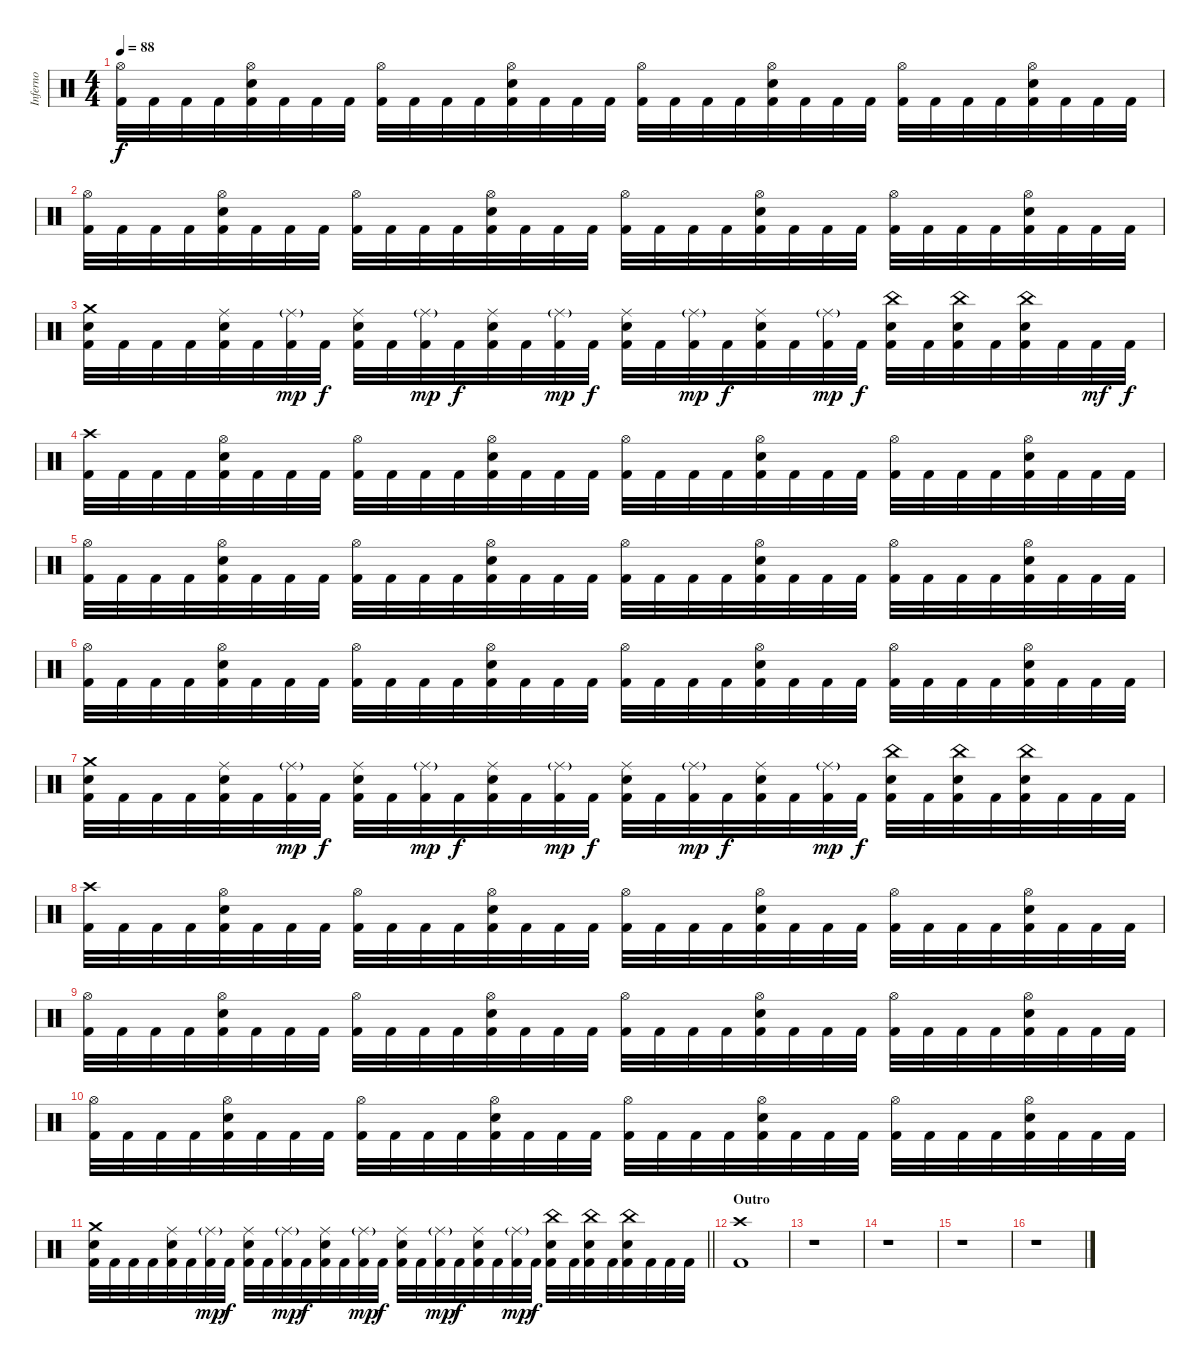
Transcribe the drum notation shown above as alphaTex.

\track ("Inferno" "Inferno") {instrument percussion}
\staff {score}
\articulation defaults
\ts (4 4)
\tempo 88
\clef neutral
\ks c
("Hi-Hat (open)" "Kick (hit) 2").32{dy f} "Kick (hit) 2".32 "Kick (hit) 2".32 "Kick (hit) 2".32 ("Hi-Hat (open)" "Snare (hit) 2" "Kick (hit) 2").32 "Kick (hit) 2".32 "Kick (hit) 2".32 "Kick (hit) 2".32 ("Hi-Hat (open)" "Kick (hit) 2").32 "Kick (hit) 2".32 "Kick (hit) 2".32 "Kick (hit) 2".32 ("Hi-Hat (open)" "Snare (hit) 2" "Kick (hit) 2").32 "Kick (hit) 2".32 "Kick (hit) 2".32 "Kick (hit) 2".32 ("Hi-Hat (open)" "Kick (hit) 2").32 "Kick (hit) 2".32 "Kick (hit) 2".32 "Kick (hit) 2".32 ("Hi-Hat (open)" "Snare (hit) 2" "Kick (hit) 2").32 "Kick (hit) 2".32 "Kick (hit) 2".32 "Kick (hit) 2".32 ("Hi-Hat (open)" "Kick (hit) 2").32 "Kick (hit) 2".32 "Kick (hit) 2".32 "Kick (hit) 2".32 ("Hi-Hat (open)" "Snare (hit) 2" "Kick (hit) 2").32 "Kick (hit) 2".32 "Kick (hit) 2".32 "Kick (hit) 2".32 |
("Hi-Hat (open)" "Kick (hit) 2").32 "Kick (hit) 2".32 "Kick (hit) 2".32 "Kick (hit) 2".32 ("Hi-Hat (open)" "Snare (hit) 2" "Kick (hit) 2").32 "Kick (hit) 2".32 "Kick (hit) 2".32 "Kick (hit) 2".32 ("Hi-Hat (open)" "Kick (hit) 2").32 "Kick (hit) 2".32 "Kick (hit) 2".32 "Kick (hit) 2".32 ("Hi-Hat (open)" "Snare (hit) 2" "Kick (hit) 2").32 "Kick (hit) 2".32 "Kick (hit) 2".32 "Kick (hit) 2".32 ("Hi-Hat (open)" "Kick (hit) 2").32 "Kick (hit) 2".32 "Kick (hit) 2".32 "Kick (hit) 2".32 ("Hi-Hat (open)" "Snare (hit) 2" "Kick (hit) 2").32 "Kick (hit) 2".32 "Kick (hit) 2".32 "Kick (hit) 2".32 ("Hi-Hat (open)" "Kick (hit) 2").32 "Kick (hit) 2".32 "Kick (hit) 2".32 "Kick (hit) 2".32 ("Hi-Hat (open)" "Snare (hit) 2" "Kick (hit) 2").32 "Kick (hit) 2".32 "Kick (hit) 2".32 "Kick (hit) 2".32 |
("Crash medium (hit)" "Snare (hit) 2" "Kick (hit) 2").32 "Kick (hit) 2".32 "Kick (hit) 2".32 "Kick (hit) 2".32 ("Ride (middle)" "Snare (hit) 2" "Kick (hit) 2").32 "Kick (hit) 2".32 ("Ride (middle)"{g} "Kick (hit) 2").32{dy mp} "Kick (hit) 2".32{dy f} ("Ride (middle)" "Snare (hit) 2" "Kick (hit) 2").32 "Kick (hit) 2".32 ("Ride (middle)"{g} "Kick (hit) 2").32{dy mp} "Kick (hit) 2".32{dy f} ("Ride (middle)" "Snare (hit) 2" "Kick (hit) 2").32 "Kick (hit) 2".32 ("Ride (middle)"{g} "Kick (hit) 2").32{dy mp} "Kick (hit) 2".32{dy f} ("Ride (middle)" "Snare (hit) 2" "Kick (hit) 2").32 "Kick (hit) 2".32 ("Ride (middle)"{g} "Kick (hit) 2").32{dy mp} "Kick (hit) 2".32{dy f} ("Ride (middle)" "Snare (hit) 2" "Kick (hit) 2").32 "Kick (hit) 2".32 ("Ride (middle)"{g} "Kick (hit) 2").32{dy mp} "Kick (hit) 2".32{dy f} ("China (hit)" "Snare (hit) 2" "Kick (hit) 2").32 "Kick (hit) 2".32 ("China (hit)" "Snare (hit) 2" "Kick (hit) 2").32 "Kick (hit) 2".32 ("China (hit)" "Snare (hit) 2" "Kick (hit) 2").32 "Kick (hit) 2".32 "Kick (hit) 2".32{dy mf} "Kick (hit) 2".32{dy f} |
("Crash high (hit)" "Kick (hit) 2").32 "Kick (hit) 2".32 "Kick (hit) 2".32 "Kick (hit) 2".32 ("Hi-Hat (open)" "Snare (hit) 2" "Kick (hit) 2").32 "Kick (hit) 2".32 "Kick (hit) 2".32 "Kick (hit) 2".32 ("Hi-Hat (open)" "Kick (hit) 2").32 "Kick (hit) 2".32 "Kick (hit) 2".32 "Kick (hit) 2".32 ("Hi-Hat (open)" "Snare (hit) 2" "Kick (hit) 2").32 "Kick (hit) 2".32 "Kick (hit) 2".32 "Kick (hit) 2".32 ("Hi-Hat (open)" "Kick (hit) 2").32 "Kick (hit) 2".32 "Kick (hit) 2".32 "Kick (hit) 2".32 ("Hi-Hat (open)" "Snare (hit) 2" "Kick (hit) 2").32 "Kick (hit) 2".32 "Kick (hit) 2".32 "Kick (hit) 2".32 ("Hi-Hat (open)" "Kick (hit) 2").32 "Kick (hit) 2".32 "Kick (hit) 2".32 "Kick (hit) 2".32 ("Hi-Hat (open)" "Snare (hit) 2" "Kick (hit) 2").32 "Kick (hit) 2".32 "Kick (hit) 2".32 "Kick (hit) 2".32 |
("Hi-Hat (open)" "Kick (hit) 2").32 "Kick (hit) 2".32 "Kick (hit) 2".32 "Kick (hit) 2".32 ("Hi-Hat (open)" "Snare (hit) 2" "Kick (hit) 2").32 "Kick (hit) 2".32 "Kick (hit) 2".32 "Kick (hit) 2".32 ("Hi-Hat (open)" "Kick (hit) 2").32 "Kick (hit) 2".32 "Kick (hit) 2".32 "Kick (hit) 2".32 ("Hi-Hat (open)" "Snare (hit) 2" "Kick (hit) 2").32 "Kick (hit) 2".32 "Kick (hit) 2".32 "Kick (hit) 2".32 ("Hi-Hat (open)" "Kick (hit) 2").32 "Kick (hit) 2".32 "Kick (hit) 2".32 "Kick (hit) 2".32 ("Hi-Hat (open)" "Snare (hit) 2" "Kick (hit) 2").32 "Kick (hit) 2".32 "Kick (hit) 2".32 "Kick (hit) 2".32 ("Hi-Hat (open)" "Kick (hit) 2").32 "Kick (hit) 2".32 "Kick (hit) 2".32 "Kick (hit) 2".32 ("Hi-Hat (open)" "Snare (hit) 2" "Kick (hit) 2").32 "Kick (hit) 2".32 "Kick (hit) 2".32 "Kick (hit) 2".32 |
("Hi-Hat (open)" "Kick (hit) 2").32 "Kick (hit) 2".32 "Kick (hit) 2".32 "Kick (hit) 2".32 ("Hi-Hat (open)" "Snare (hit) 2" "Kick (hit) 2").32 "Kick (hit) 2".32 "Kick (hit) 2".32 "Kick (hit) 2".32 ("Hi-Hat (open)" "Kick (hit) 2").32 "Kick (hit) 2".32 "Kick (hit) 2".32 "Kick (hit) 2".32 ("Hi-Hat (open)" "Snare (hit) 2" "Kick (hit) 2").32 "Kick (hit) 2".32 "Kick (hit) 2".32 "Kick (hit) 2".32 ("Hi-Hat (open)" "Kick (hit) 2").32 "Kick (hit) 2".32 "Kick (hit) 2".32 "Kick (hit) 2".32 ("Hi-Hat (open)" "Snare (hit) 2" "Kick (hit) 2").32 "Kick (hit) 2".32 "Kick (hit) 2".32 "Kick (hit) 2".32 ("Hi-Hat (open)" "Kick (hit) 2").32 "Kick (hit) 2".32 "Kick (hit) 2".32 "Kick (hit) 2".32 ("Hi-Hat (open)" "Snare (hit) 2" "Kick (hit) 2").32 "Kick (hit) 2".32 "Kick (hit) 2".32 "Kick (hit) 2".32 |
("Crash medium (hit)" "Snare (hit) 2" "Kick (hit) 2").32 "Kick (hit) 2".32 "Kick (hit) 2".32 "Kick (hit) 2".32 ("Ride (middle)" "Snare (hit) 2" "Kick (hit) 2").32 "Kick (hit) 2".32 ("Ride (middle)"{g} "Kick (hit) 2").32{dy mp} "Kick (hit) 2".32{dy f} ("Ride (middle)" "Snare (hit) 2" "Kick (hit) 2").32 "Kick (hit) 2".32 ("Ride (middle)"{g} "Kick (hit) 2").32{dy mp} "Kick (hit) 2".32{dy f} ("Ride (middle)" "Snare (hit) 2" "Kick (hit) 2").32 "Kick (hit) 2".32 ("Ride (middle)"{g} "Kick (hit) 2").32{dy mp} "Kick (hit) 2".32{dy f} ("Ride (middle)" "Snare (hit) 2" "Kick (hit) 2").32 "Kick (hit) 2".32 ("Ride (middle)"{g} "Kick (hit) 2").32{dy mp} "Kick (hit) 2".32{dy f} ("Ride (middle)" "Snare (hit) 2" "Kick (hit) 2").32 "Kick (hit) 2".32 ("Ride (middle)"{g} "Kick (hit) 2").32{dy mp} "Kick (hit) 2".32{dy f} ("China (hit)" "Snare (hit) 2" "Kick (hit) 2").32 "Kick (hit) 2".32 ("China (hit)" "Snare (hit) 2" "Kick (hit) 2").32 "Kick (hit) 2".32 ("China (hit)" "Snare (hit) 2" "Kick (hit) 2").32 "Kick (hit) 2".32 "Kick (hit) 2".32 "Kick (hit) 2".32 |
("Crash high (hit)" "Kick (hit) 2").32 "Kick (hit) 2".32 "Kick (hit) 2".32 "Kick (hit) 2".32 ("Hi-Hat (open)" "Snare (hit) 2" "Kick (hit) 2").32 "Kick (hit) 2".32 "Kick (hit) 2".32 "Kick (hit) 2".32 ("Hi-Hat (open)" "Kick (hit) 2").32 "Kick (hit) 2".32 "Kick (hit) 2".32 "Kick (hit) 2".32 ("Hi-Hat (open)" "Snare (hit) 2" "Kick (hit) 2").32 "Kick (hit) 2".32 "Kick (hit) 2".32 "Kick (hit) 2".32 ("Hi-Hat (open)" "Kick (hit) 2").32 "Kick (hit) 2".32 "Kick (hit) 2".32 "Kick (hit) 2".32 ("Hi-Hat (open)" "Snare (hit) 2" "Kick (hit) 2").32 "Kick (hit) 2".32 "Kick (hit) 2".32 "Kick (hit) 2".32 ("Hi-Hat (open)" "Kick (hit) 2").32 "Kick (hit) 2".32 "Kick (hit) 2".32 "Kick (hit) 2".32 ("Hi-Hat (open)" "Snare (hit) 2" "Kick (hit) 2").32 "Kick (hit) 2".32 "Kick (hit) 2".32 "Kick (hit) 2".32 |
("Hi-Hat (open)" "Kick (hit) 2").32 "Kick (hit) 2".32 "Kick (hit) 2".32 "Kick (hit) 2".32 ("Hi-Hat (open)" "Snare (hit) 2" "Kick (hit) 2").32 "Kick (hit) 2".32 "Kick (hit) 2".32 "Kick (hit) 2".32 ("Hi-Hat (open)" "Kick (hit) 2").32 "Kick (hit) 2".32 "Kick (hit) 2".32 "Kick (hit) 2".32 ("Hi-Hat (open)" "Snare (hit) 2" "Kick (hit) 2").32 "Kick (hit) 2".32 "Kick (hit) 2".32 "Kick (hit) 2".32 ("Hi-Hat (open)" "Kick (hit) 2").32 "Kick (hit) 2".32 "Kick (hit) 2".32 "Kick (hit) 2".32 ("Hi-Hat (open)" "Snare (hit) 2" "Kick (hit) 2").32 "Kick (hit) 2".32 "Kick (hit) 2".32 "Kick (hit) 2".32 ("Hi-Hat (open)" "Kick (hit) 2").32 "Kick (hit) 2".32 "Kick (hit) 2".32 "Kick (hit) 2".32 ("Hi-Hat (open)" "Snare (hit) 2" "Kick (hit) 2").32 "Kick (hit) 2".32 "Kick (hit) 2".32 "Kick (hit) 2".32 |
("Hi-Hat (open)" "Kick (hit) 2").32 "Kick (hit) 2".32 "Kick (hit) 2".32 "Kick (hit) 2".32 ("Hi-Hat (open)" "Snare (hit) 2" "Kick (hit) 2").32 "Kick (hit) 2".32 "Kick (hit) 2".32 "Kick (hit) 2".32 ("Hi-Hat (open)" "Kick (hit) 2").32 "Kick (hit) 2".32 "Kick (hit) 2".32 "Kick (hit) 2".32 ("Hi-Hat (open)" "Snare (hit) 2" "Kick (hit) 2").32 "Kick (hit) 2".32 "Kick (hit) 2".32 "Kick (hit) 2".32 ("Hi-Hat (open)" "Kick (hit) 2").32 "Kick (hit) 2".32 "Kick (hit) 2".32 "Kick (hit) 2".32 ("Hi-Hat (open)" "Snare (hit) 2" "Kick (hit) 2").32 "Kick (hit) 2".32 "Kick (hit) 2".32 "Kick (hit) 2".32 ("Hi-Hat (open)" "Kick (hit) 2").32 "Kick (hit) 2".32 "Kick (hit) 2".32 "Kick (hit) 2".32 ("Hi-Hat (open)" "Snare (hit) 2" "Kick (hit) 2").32 "Kick (hit) 2".32 "Kick (hit) 2".32 "Kick (hit) 2".32 |
\barLineRight lightlight
("Crash medium (hit)" "Snare (hit) 2" "Kick (hit) 2").32 "Kick (hit) 2".32 "Kick (hit) 2".32 "Kick (hit) 2".32 ("Ride (middle)" "Snare (hit) 2" "Kick (hit) 2").32 "Kick (hit) 2".32 ("Ride (middle)"{g} "Kick (hit) 2").32{dy mp} "Kick (hit) 2".32{dy f} ("Ride (middle)" "Snare (hit) 2" "Kick (hit) 2").32 "Kick (hit) 2".32 ("Ride (middle)"{g} "Kick (hit) 2").32{dy mp} "Kick (hit) 2".32{dy f} ("Ride (middle)" "Snare (hit) 2" "Kick (hit) 2").32 "Kick (hit) 2".32 ("Ride (middle)"{g} "Kick (hit) 2").32{dy mp} "Kick (hit) 2".32{dy f} ("Ride (middle)" "Snare (hit) 2" "Kick (hit) 2").32 "Kick (hit) 2".32 ("Ride (middle)"{g} "Kick (hit) 2").32{dy mp} "Kick (hit) 2".32{dy f} ("Ride (middle)" "Snare (hit) 2" "Kick (hit) 2").32 "Kick (hit) 2".32 ("Ride (middle)"{g} "Kick (hit) 2").32{dy mp} "Kick (hit) 2".32{dy f} ("China (hit)" "Snare (hit) 2" "Kick (hit) 2").32 "Kick (hit) 2".32 ("China (hit)" "Snare (hit) 2" "Kick (hit) 2").32 "Kick (hit) 2".32 ("China (hit)" "Snare (hit) 2" "Kick (hit) 2").32 "Kick (hit) 2".32 "Kick (hit) 2".32 "Kick (hit) 2".32 |
\section ("" "Outro")
("Crash high (hit)" "Kick (hit) 2").1 |
r.1 |
r.1 |
r.1 |
r.1
